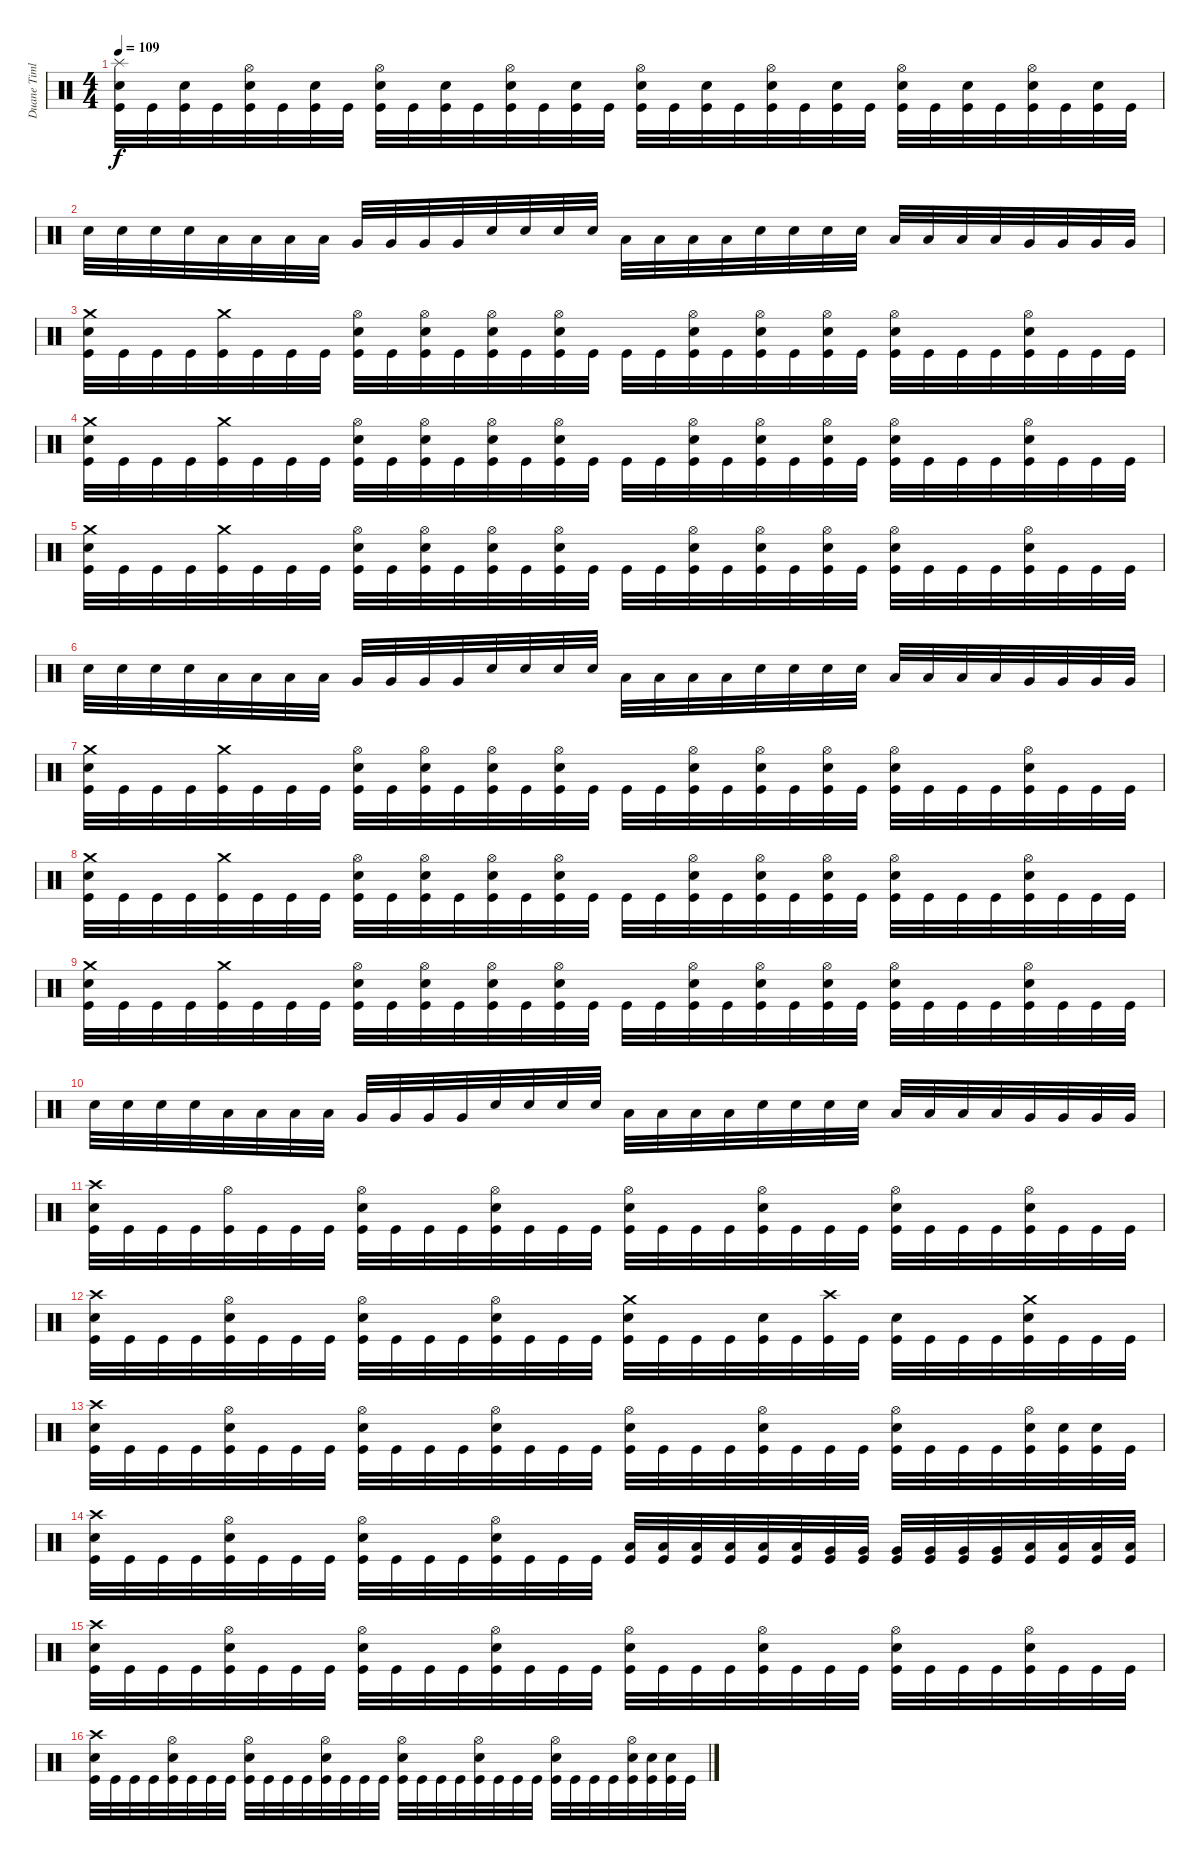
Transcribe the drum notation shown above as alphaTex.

\track ("Duane Timlin" "Duane Timl") {instrument percussion}
\staff {score}
\articulation defaults
\ts (4 4)
\tempo 109
\clef neutral
\ks c
("Kick (hit)" "Snare (hit) 2" "Splash (hit)").32{dy f} "Kick (hit)".32 ("Kick (hit)" "Snare (hit) 2").32 "Kick (hit)".32 ("Kick (hit)" "Snare (hit) 2" "Hi-Hat (open)").32 "Kick (hit)".32 ("Kick (hit)" "Snare (hit) 2").32 "Kick (hit)".32 ("Kick (hit)" "Snare (hit) 2" "Hi-Hat (open)").32 "Kick (hit)".32 ("Kick (hit)" "Snare (hit) 2").32 "Kick (hit)".32 ("Kick (hit)" "Snare (hit) 2" "Hi-Hat (open)").32 "Kick (hit)".32 ("Kick (hit)" "Snare (hit) 2").32 "Kick (hit)".32 ("Kick (hit)" "Snare (hit) 2" "Hi-Hat (open)").32 "Kick (hit)".32 ("Kick (hit)" "Snare (hit) 2").32 "Kick (hit)".32 ("Kick (hit)" "Snare (hit) 2" "Hi-Hat (open)").32 "Kick (hit)".32 ("Kick (hit)" "Snare (hit) 2").32 "Kick (hit)".32 ("Kick (hit)" "Snare (hit) 2" "Hi-Hat (open)").32 "Kick (hit)".32 ("Kick (hit)" "Snare (hit) 2").32 "Kick (hit)".32 ("Kick (hit)" "Snare (hit) 2" "Hi-Hat (open)").32 "Kick (hit)".32 ("Kick (hit)" "Snare (hit) 2").32 "Kick (hit)".32 |
"Snare (hit) 2".32 "Snare (hit) 2".32 "Snare (hit) 2".32 "Snare (hit) 2".32 "Low Tom (hit)".32 "Low Tom (hit)".32 "Low Tom (hit)".32 "Low Tom (hit)".32 "Very Low Tom (hit)".32 "Very Low Tom (hit)".32 "Very Low Tom (hit)".32 "Very Low Tom (hit)".32 "Snare (hit) 2".32 "Snare (hit) 2".32 "Snare (hit) 2".32 "Snare (hit) 2".32 "Low Tom (hit)".32 "Low Tom (hit)".32 "Low Tom (hit)".32 "Low Tom (hit)".32 "Snare (hit) 2".32 "Snare (hit) 2".32 "Snare (hit) 2".32 "Snare (hit) 2".32 "Low Tom (hit)".32 "Low Tom (hit)".32 "Low Tom (hit)".32 "Low Tom (hit)".32 "Very Low Tom (hit)".32 "Very Low Tom (hit)".32 "Very Low Tom (hit)".32 "Very Low Tom (hit)".32 |
\section ("" "")
("Kick (hit)" "Crash medium (hit)" "Snare (hit) 2").32 "Kick (hit)".32 "Kick (hit)".32 "Kick (hit)".32 ("Kick (hit)" "Crash medium (hit)").32 "Kick (hit)".32 "Kick (hit)".32 "Kick (hit)".32 ("Kick (hit)" "Snare (hit) 2" "Hi-Hat (open)").32 "Kick (hit)".32 ("Kick (hit)" "Snare (hit) 2" "Hi-Hat (open)").32 "Kick (hit)".32 ("Kick (hit)" "Snare (hit) 2" "Hi-Hat (open)").32 "Kick (hit)".32 ("Kick (hit)" "Snare (hit) 2" "Hi-Hat (open)").32 "Kick (hit)".32 "Kick (hit)".32 "Kick (hit)".32 ("Kick (hit)" "Snare (hit) 2" "Hi-Hat (open)").32 "Kick (hit)".32 ("Kick (hit)" "Snare (hit) 2" "Hi-Hat (open)").32 "Kick (hit)".32 ("Kick (hit)" "Snare (hit) 2" "Hi-Hat (open)").32 "Kick (hit)".32 ("Kick (hit)" "Snare (hit) 2" "Hi-Hat (open)").32 "Kick (hit)".32 "Kick (hit)".32 "Kick (hit)".32 ("Kick (hit)" "Snare (hit) 2" "Hi-Hat (open)").32 "Kick (hit)".32 "Kick (hit)".32 "Kick (hit)".32 |
("Kick (hit)" "Crash medium (hit)" "Snare (hit) 2").32 "Kick (hit)".32 "Kick (hit)".32 "Kick (hit)".32 ("Kick (hit)" "Crash medium (hit)").32 "Kick (hit)".32 "Kick (hit)".32 "Kick (hit)".32 ("Kick (hit)" "Snare (hit) 2" "Hi-Hat (open)").32 "Kick (hit)".32 ("Kick (hit)" "Snare (hit) 2" "Hi-Hat (open)").32 "Kick (hit)".32 ("Kick (hit)" "Snare (hit) 2" "Hi-Hat (open)").32 "Kick (hit)".32 ("Kick (hit)" "Snare (hit) 2" "Hi-Hat (open)").32 "Kick (hit)".32 "Kick (hit)".32 "Kick (hit)".32 ("Kick (hit)" "Snare (hit) 2" "Hi-Hat (open)").32 "Kick (hit)".32 ("Kick (hit)" "Snare (hit) 2" "Hi-Hat (open)").32 "Kick (hit)".32 ("Kick (hit)" "Snare (hit) 2" "Hi-Hat (open)").32 "Kick (hit)".32 ("Kick (hit)" "Snare (hit) 2" "Hi-Hat (open)").32 "Kick (hit)".32 "Kick (hit)".32 "Kick (hit)".32 ("Kick (hit)" "Snare (hit) 2" "Hi-Hat (open)").32 "Kick (hit)".32 "Kick (hit)".32 "Kick (hit)".32 |
("Kick (hit)" "Crash medium (hit)" "Snare (hit) 2").32 "Kick (hit)".32 "Kick (hit)".32 "Kick (hit)".32 ("Kick (hit)" "Crash medium (hit)").32 "Kick (hit)".32 "Kick (hit)".32 "Kick (hit)".32 ("Kick (hit)" "Snare (hit) 2" "Hi-Hat (open)").32 "Kick (hit)".32 ("Kick (hit)" "Snare (hit) 2" "Hi-Hat (open)").32 "Kick (hit)".32 ("Kick (hit)" "Snare (hit) 2" "Hi-Hat (open)").32 "Kick (hit)".32 ("Kick (hit)" "Snare (hit) 2" "Hi-Hat (open)").32 "Kick (hit)".32 "Kick (hit)".32 "Kick (hit)".32 ("Kick (hit)" "Snare (hit) 2" "Hi-Hat (open)").32 "Kick (hit)".32 ("Kick (hit)" "Snare (hit) 2" "Hi-Hat (open)").32 "Kick (hit)".32 ("Kick (hit)" "Snare (hit) 2" "Hi-Hat (open)").32 "Kick (hit)".32 ("Kick (hit)" "Snare (hit) 2" "Hi-Hat (open)").32 "Kick (hit)".32 "Kick (hit)".32 "Kick (hit)".32 ("Kick (hit)" "Snare (hit) 2" "Hi-Hat (open)").32 "Kick (hit)".32 "Kick (hit)".32 "Kick (hit)".32 |
"Snare (hit) 2".32 "Snare (hit) 2".32 "Snare (hit) 2".32 "Snare (hit) 2".32 "Low Tom (hit)".32 "Low Tom (hit)".32 "Low Tom (hit)".32 "Low Tom (hit)".32 "Very Low Tom (hit)".32 "Very Low Tom (hit)".32 "Very Low Tom (hit)".32 "Very Low Tom (hit)".32 "Snare (hit) 2".32 "Snare (hit) 2".32 "Snare (hit) 2".32 "Snare (hit) 2".32 "Low Tom (hit)".32 "Low Tom (hit)".32 "Low Tom (hit)".32 "Low Tom (hit)".32 "Snare (hit) 2".32 "Snare (hit) 2".32 "Snare (hit) 2".32 "Snare (hit) 2".32 "Low Tom (hit)".32 "Low Tom (hit)".32 "Low Tom (hit)".32 "Low Tom (hit)".32 "Very Low Tom (hit)".32 "Very Low Tom (hit)".32 "Very Low Tom (hit)".32 "Very Low Tom (hit)".32 |
("Kick (hit)" "Crash medium (hit)" "Snare (hit) 2").32 "Kick (hit)".32 "Kick (hit)".32 "Kick (hit)".32 ("Kick (hit)" "Crash medium (hit)").32 "Kick (hit)".32 "Kick (hit)".32 "Kick (hit)".32 ("Kick (hit)" "Snare (hit) 2" "Hi-Hat (open)").32 "Kick (hit)".32 ("Kick (hit)" "Snare (hit) 2" "Hi-Hat (open)").32 "Kick (hit)".32 ("Kick (hit)" "Snare (hit) 2" "Hi-Hat (open)").32 "Kick (hit)".32 ("Kick (hit)" "Snare (hit) 2" "Hi-Hat (open)").32 "Kick (hit)".32 "Kick (hit)".32 "Kick (hit)".32 ("Kick (hit)" "Snare (hit) 2" "Hi-Hat (open)").32 "Kick (hit)".32 ("Kick (hit)" "Snare (hit) 2" "Hi-Hat (open)").32 "Kick (hit)".32 ("Kick (hit)" "Snare (hit) 2" "Hi-Hat (open)").32 "Kick (hit)".32 ("Kick (hit)" "Snare (hit) 2" "Hi-Hat (open)").32 "Kick (hit)".32 "Kick (hit)".32 "Kick (hit)".32 ("Kick (hit)" "Snare (hit) 2" "Hi-Hat (open)").32 "Kick (hit)".32 "Kick (hit)".32 "Kick (hit)".32 |
("Kick (hit)" "Crash medium (hit)" "Snare (hit) 2").32 "Kick (hit)".32 "Kick (hit)".32 "Kick (hit)".32 ("Kick (hit)" "Crash medium (hit)").32 "Kick (hit)".32 "Kick (hit)".32 "Kick (hit)".32 ("Kick (hit)" "Snare (hit) 2" "Hi-Hat (open)").32 "Kick (hit)".32 ("Kick (hit)" "Snare (hit) 2" "Hi-Hat (open)").32 "Kick (hit)".32 ("Kick (hit)" "Snare (hit) 2" "Hi-Hat (open)").32 "Kick (hit)".32 ("Kick (hit)" "Snare (hit) 2" "Hi-Hat (open)").32 "Kick (hit)".32 "Kick (hit)".32 "Kick (hit)".32 ("Kick (hit)" "Snare (hit) 2" "Hi-Hat (open)").32 "Kick (hit)".32 ("Kick (hit)" "Snare (hit) 2" "Hi-Hat (open)").32 "Kick (hit)".32 ("Kick (hit)" "Snare (hit) 2" "Hi-Hat (open)").32 "Kick (hit)".32 ("Kick (hit)" "Snare (hit) 2" "Hi-Hat (open)").32 "Kick (hit)".32 "Kick (hit)".32 "Kick (hit)".32 ("Kick (hit)" "Snare (hit) 2" "Hi-Hat (open)").32 "Kick (hit)".32 "Kick (hit)".32 "Kick (hit)".32 |
("Kick (hit)" "Crash medium (hit)" "Snare (hit) 2").32 "Kick (hit)".32 "Kick (hit)".32 "Kick (hit)".32 ("Kick (hit)" "Crash medium (hit)").32 "Kick (hit)".32 "Kick (hit)".32 "Kick (hit)".32 ("Kick (hit)" "Snare (hit) 2" "Hi-Hat (open)").32 "Kick (hit)".32 ("Kick (hit)" "Snare (hit) 2" "Hi-Hat (open)").32 "Kick (hit)".32 ("Kick (hit)" "Snare (hit) 2" "Hi-Hat (open)").32 "Kick (hit)".32 ("Kick (hit)" "Snare (hit) 2" "Hi-Hat (open)").32 "Kick (hit)".32 "Kick (hit)".32 "Kick (hit)".32 ("Kick (hit)" "Snare (hit) 2" "Hi-Hat (open)").32 "Kick (hit)".32 ("Kick (hit)" "Snare (hit) 2" "Hi-Hat (open)").32 "Kick (hit)".32 ("Kick (hit)" "Snare (hit) 2" "Hi-Hat (open)").32 "Kick (hit)".32 ("Kick (hit)" "Snare (hit) 2" "Hi-Hat (open)").32 "Kick (hit)".32 "Kick (hit)".32 "Kick (hit)".32 ("Kick (hit)" "Snare (hit) 2" "Hi-Hat (open)").32 "Kick (hit)".32 "Kick (hit)".32 "Kick (hit)".32 |
"Snare (hit) 2".32 "Snare (hit) 2".32 "Snare (hit) 2".32 "Snare (hit) 2".32 "Low Tom (hit)".32 "Low Tom (hit)".32 "Low Tom (hit)".32 "Low Tom (hit)".32 "Very Low Tom (hit)".32 "Very Low Tom (hit)".32 "Very Low Tom (hit)".32 "Very Low Tom (hit)".32 "Snare (hit) 2".32 "Snare (hit) 2".32 "Snare (hit) 2".32 "Snare (hit) 2".32 "Low Tom (hit)".32 "Low Tom (hit)".32 "Low Tom (hit)".32 "Low Tom (hit)".32 "Snare (hit) 2".32 "Snare (hit) 2".32 "Snare (hit) 2".32 "Snare (hit) 2".32 "Low Tom (hit)".32 "Low Tom (hit)".32 "Low Tom (hit)".32 "Low Tom (hit)".32 "Very Low Tom (hit)".32 "Very Low Tom (hit)".32 "Very Low Tom (hit)".32 "Very Low Tom (hit)".32 |
\section ("" "")
("Kick (hit)" "Snare (hit) 2" "Crash high (hit)").32 "Kick (hit)".32 "Kick (hit)".32 "Kick (hit)".32 ("Kick (hit)" "Hi-Hat (open)").32 "Kick (hit)".32 "Kick (hit)".32 "Kick (hit)".32 ("Kick (hit)" "Snare (hit) 2" "Hi-Hat (open)").32 "Kick (hit)".32 "Kick (hit)".32 "Kick (hit)".32 ("Kick (hit)" "Snare (hit) 2" "Hi-Hat (open)").32 "Kick (hit)".32 "Kick (hit)".32 "Kick (hit)".32 ("Kick (hit)" "Snare (hit) 2" "Hi-Hat (open)").32 "Kick (hit)".32 "Kick (hit)".32 "Kick (hit)".32 ("Kick (hit)" "Snare (hit) 2" "Hi-Hat (open)").32 "Kick (hit)".32 "Kick (hit)".32 "Kick (hit)".32 ("Kick (hit)" "Snare (hit) 2" "Hi-Hat (open)").32 "Kick (hit)".32 "Kick (hit)".32 "Kick (hit)".32 ("Kick (hit)" "Snare (hit) 2" "Hi-Hat (open)").32 "Kick (hit)".32 "Kick (hit)".32 "Kick (hit)".32 |
("Kick (hit)" "Snare (hit) 2" "Crash high (hit)").32 "Kick (hit)".32 "Kick (hit)".32 "Kick (hit)".32 ("Kick (hit)" "Snare (hit) 2" "Hi-Hat (open)").32 "Kick (hit)".32 "Kick (hit)".32 "Kick (hit)".32 ("Kick (hit)" "Snare (hit) 2" "Hi-Hat (open)").32 "Kick (hit)".32 "Kick (hit)".32 "Kick (hit)".32 ("Kick (hit)" "Snare (hit) 2" "Hi-Hat (open)").32 "Kick (hit)".32 "Kick (hit)".32 "Kick (hit)".32 ("Kick (hit)" "Snare (hit) 2" "Crash medium (hit)").32 "Kick (hit)".32 "Kick (hit)".32 "Kick (hit)".32 ("Kick (hit)" "Snare (hit) 2").32 "Kick (hit)".32 ("Kick (hit)" "Crash high (hit)").32 "Kick (hit)".32 ("Kick (hit)" "Snare (hit) 2").32 "Kick (hit)".32 "Kick (hit)".32 "Kick (hit)".32 ("Kick (hit)" "Snare (hit) 2" "Crash medium (hit)").32 "Kick (hit)".32 "Kick (hit)".32 "Kick (hit)".32 |
("Kick (hit)" "Crash high (hit)" "Snare (hit) 2").32 "Kick (hit)".32 "Kick (hit)".32 "Kick (hit)".32 ("Kick (hit)" "Snare (hit) 2" "Hi-Hat (open)").32 "Kick (hit)".32 "Kick (hit)".32 "Kick (hit)".32 ("Kick (hit)" "Snare (hit) 2" "Hi-Hat (open)").32 "Kick (hit)".32 "Kick (hit)".32 "Kick (hit)".32 ("Kick (hit)" "Snare (hit) 2" "Hi-Hat (open)").32 "Kick (hit)".32 "Kick (hit)".32 "Kick (hit)".32 ("Kick (hit)" "Snare (hit) 2" "Hi-Hat (open)").32 "Kick (hit)".32 "Kick (hit)".32 "Kick (hit)".32 ("Kick (hit)" "Snare (hit) 2" "Hi-Hat (open)").32 "Kick (hit)".32 "Kick (hit)".32 "Kick (hit)".32 ("Kick (hit)" "Snare (hit) 2" "Hi-Hat (open)").32 "Kick (hit)".32 "Kick (hit)".32 "Kick (hit)".32 ("Kick (hit)" "Snare (hit) 2" "Hi-Hat (open)").32 ("Kick (hit)" "Snare (hit) 2").32 ("Kick (hit)" "Snare (hit) 2").32 "Kick (hit)".32 |
("Kick (hit)" "Snare (hit) 2" "Crash high (hit)").32 "Kick (hit)".32 "Kick (hit)".32 "Kick (hit)".32 ("Kick (hit)" "Snare (hit) 2" "Hi-Hat (open)").32 "Kick (hit)".32 "Kick (hit)".32 "Kick (hit)".32 ("Kick (hit)" "Snare (hit) 2" "Hi-Hat (open)").32 "Kick (hit)".32 "Kick (hit)".32 "Kick (hit)".32 ("Kick (hit)" "Snare (hit) 2" "Hi-Hat (open)").32 "Kick (hit)".32 "Kick (hit)".32 "Kick (hit)".32 ("Kick (hit)" "Low Tom (hit)").32 ("Kick (hit)" "Low Tom (hit)").32 ("Kick (hit)" "Low Tom (hit)").32 ("Kick (hit)" "Low Tom (hit)").32 ("Kick (hit)" "Low Tom (hit)").32 ("Kick (hit)" "Low Tom (hit)").32 ("Kick (hit)" "Very Low Tom (hit)").32 ("Kick (hit)" "Very Low Tom (hit)").32 ("Kick (hit)" "Very Low Tom (hit)").32 ("Kick (hit)" "Very Low Tom (hit)").32 ("Kick (hit)" "Very Low Tom (hit)").32 ("Kick (hit)" "Very Low Tom (hit)").32 ("Kick (hit)" "Low Floor Tom (hit)").32 ("Kick (hit)" "Low Floor Tom (hit)").32 ("Kick (hit)" "Low Floor Tom (hit)").32 ("Kick (hit)" "Low Floor Tom (hit)").32 |
("Kick (hit)" "Snare (hit) 2" "Crash high (hit)").32 "Kick (hit)".32 "Kick (hit)".32 "Kick (hit)".32 ("Kick (hit)" "Hi-Hat (open)" "Snare (hit) 2").32 "Kick (hit)".32 "Kick (hit)".32 "Kick (hit)".32 ("Kick (hit)" "Snare (hit) 2" "Hi-Hat (open)").32 "Kick (hit)".32 "Kick (hit)".32 "Kick (hit)".32 ("Kick (hit)" "Snare (hit) 2" "Hi-Hat (open)").32 "Kick (hit)".32 "Kick (hit)".32 "Kick (hit)".32 ("Kick (hit)" "Snare (hit) 2" "Hi-Hat (open)").32 "Kick (hit)".32 "Kick (hit)".32 "Kick (hit)".32 ("Kick (hit)" "Snare (hit) 2" "Hi-Hat (open)").32 "Kick (hit)".32 "Kick (hit)".32 "Kick (hit)".32 ("Kick (hit)" "Snare (hit) 2" "Hi-Hat (open)").32 "Kick (hit)".32 "Kick (hit)".32 "Kick (hit)".32 ("Kick (hit)" "Snare (hit) 2" "Hi-Hat (open)").32 "Kick (hit)".32 "Kick (hit)".32 "Kick (hit)".32 |
("Kick (hit)" "Crash high (hit)" "Snare (hit) 2").32 "Kick (hit)".32 "Kick (hit)".32 "Kick (hit)".32 ("Kick (hit)" "Snare (hit) 2" "Hi-Hat (open)").32 "Kick (hit)".32 "Kick (hit)".32 "Kick (hit)".32 ("Kick (hit)" "Snare (hit) 2" "Hi-Hat (open)").32 "Kick (hit)".32 "Kick (hit)".32 "Kick (hit)".32 ("Kick (hit)" "Snare (hit) 2" "Hi-Hat (open)").32 "Kick (hit)".32 "Kick (hit)".32 "Kick (hit)".32 ("Kick (hit)" "Snare (hit) 2" "Hi-Hat (open)").32 "Kick (hit)".32 "Kick (hit)".32 "Kick (hit)".32 ("Kick (hit)" "Snare (hit) 2" "Hi-Hat (open)").32 "Kick (hit)".32 "Kick (hit)".32 "Kick (hit)".32 ("Kick (hit)" "Snare (hit) 2" "Hi-Hat (open)").32 "Kick (hit)".32 "Kick (hit)".32 "Kick (hit)".32 ("Kick (hit)" "Snare (hit) 2" "Hi-Hat (open)").32 ("Kick (hit)" "Snare (hit) 2").32 ("Kick (hit)" "Snare (hit) 2").32 "Kick (hit)".32
